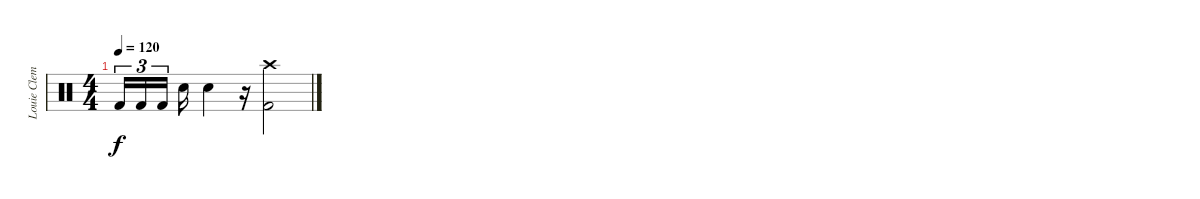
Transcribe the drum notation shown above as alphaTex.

\track ("Louie Clemente" "Louie Clem") {instrument percussion}
\staff {score}
\articulation defaults
\ts (4 4)
\tempo 120
\clef neutral
\ks c "Kick (hit) 2".16{tu (3 2) dy f} "Kick (hit) 2".16{tu (3 2)} "Kick (hit) 2".16{tu (3 2)} "Snare (hit) 2".16 "Snare (hit) 2".4
r.16 ("Crash high (hit)" "Kick (hit) 2").2
